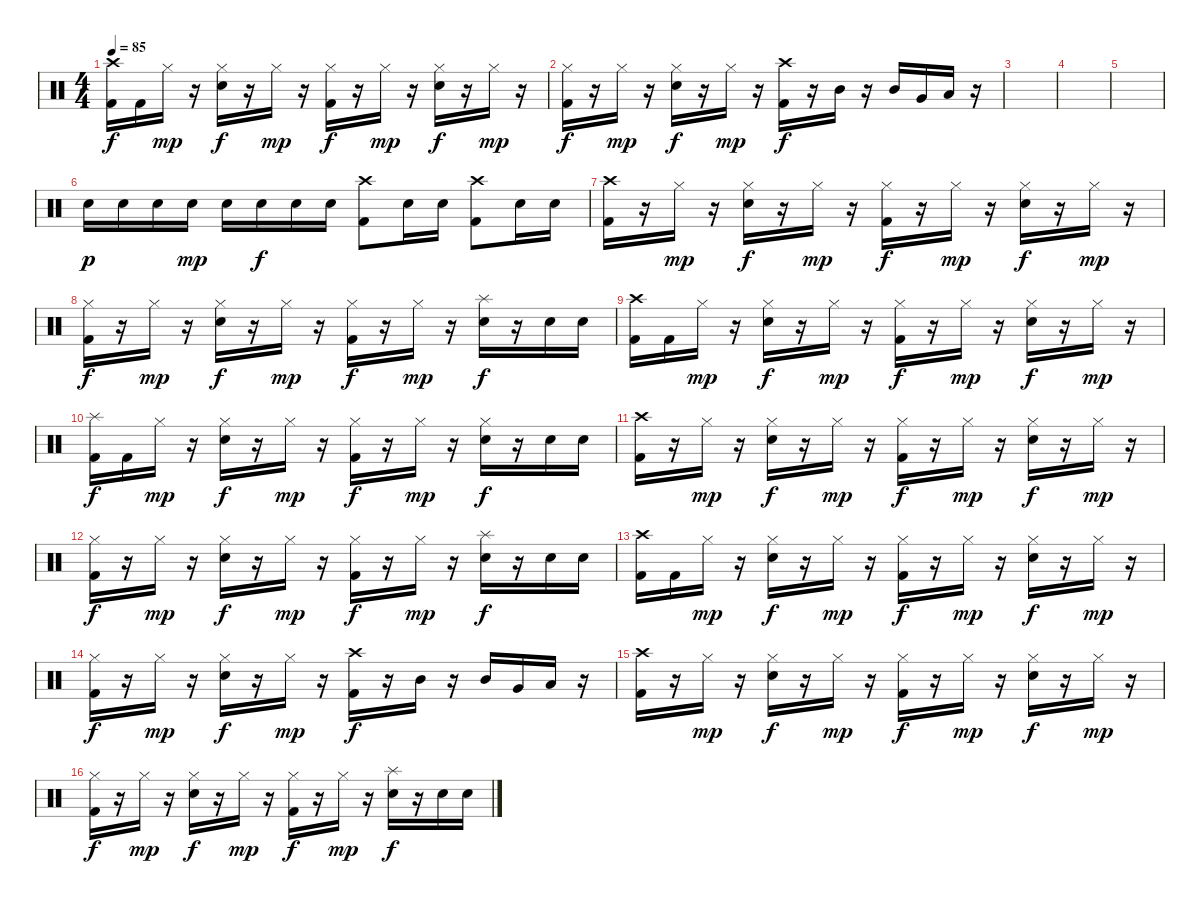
\track ("              Stefff" "          ") {instrument percussion}
\staff {score}
\articulation defaults
\ts (4 4)
\tempo 85
\clef neutral
\ks c
("Kick (hit) 2" "Crash high (hit)").16{dy f} "Kick (hit) 2".16 "Hi-Hat (closed)".16{dy mp} r.16 ("Hi-Hat (closed)" "Snare (hit) 2").16{dy f} r.16 "Hi-Hat (closed)".16{dy mp} r.16 ("Hi-Hat (closed)" "Kick (hit) 2").16{dy f} r.16 "Hi-Hat (closed)".16{dy mp} r.16 ("Hi-Hat (closed)" "Snare (hit) 2").16{dy f} r.16 "Hi-Hat (closed)".16{dy mp} r.16 |
("Kick (hit) 2" "Hi-Hat (closed)").16{dy f} r.16 "Hi-Hat (closed)".16{dy mp} r.16 ("Hi-Hat (closed)" "Snare (hit) 2").16{dy f} r.16 "Hi-Hat (closed)".16{dy mp} r.16 ("Crash high (hit)" "Kick (hit) 2").16{dy f} r.16 "Mid Tom (hit)".16 r.16 "Mid Tom (hit)".16 "Very Low Tom (hit)".16 "Low Floor Tom (hit)".16 r.16 |
|
|
|
"Snare (hit) 2".16{dy p} "Snare (hit) 2".16 "Snare (hit) 2".16 "Snare (hit) 2".16{dy mp} "Snare (hit) 2".16 "Snare (hit) 2".16{dy f} "Snare (hit) 2".16 "Snare (hit) 2".16 ("Kick (hit) 2" "Crash high (hit)").8 "Snare (hit) 2".16 "Snare (hit) 2".16 ("Kick (hit) 2" "Crash high (hit)").8 "Snare (hit) 2".16 "Snare (hit) 2".16 |
("Kick (hit) 2" "Crash high (hit)").16 r.16 "Hi-Hat (closed)".16{dy mp} r.16 ("Hi-Hat (closed)" "Snare (hit) 2").16{dy f} r.16 "Hi-Hat (closed)".16{dy mp} r.16 ("Hi-Hat (closed)" "Kick (hit) 2").16{dy f} r.16 "Hi-Hat (closed)".16{dy mp} r.16 ("Hi-Hat (closed)" "Snare (hit) 2").16{dy f} r.16 "Hi-Hat (closed)".16{dy mp} r.16 |
("Kick (hit) 2" "Hi-Hat (closed)").16{dy f} r.16 "Hi-Hat (closed)".16{dy mp} r.16 ("Hi-Hat (closed)" "Snare (hit) 2").16{dy f} r.16 "Hi-Hat (closed)".16{dy mp} r.16 ("Hi-Hat (closed)" "Kick (hit) 2").16{dy f} r.16 "Hi-Hat (closed)".16{dy mp} r.16 ("Splash (hit)" "Snare (hit) 2").16{dy f} r.16 "Snare (hit) 2".16 "Snare (hit) 2".16 |
("Kick (hit) 2" "Crash high (hit)").16 "Kick (hit) 2".16 "Hi-Hat (closed)".16{dy mp} r.16 ("Hi-Hat (closed)" "Snare (hit) 2").16{dy f} r.16 "Hi-Hat (closed)".16{dy mp} r.16 ("Hi-Hat (closed)" "Kick (hit) 2").16{dy f} r.16 "Hi-Hat (closed)".16{dy mp} r.16 ("Hi-Hat (closed)" "Snare (hit) 2").16{dy f} r.16 "Hi-Hat (closed)".16{dy mp} r.16 |
("Kick (hit) 2" "Splash (hit)").16{dy f} "Kick (hit) 2".16 "Hi-Hat (closed)".16{dy mp} r.16 ("Hi-Hat (closed)" "Snare (hit) 2").16{dy f} r.16 "Hi-Hat (closed)".16{dy mp} r.16 ("Hi-Hat (closed)" "Kick (hit) 2").16{dy f} r.16 "Hi-Hat (closed)".16{dy mp} r.16 ("Hi-Hat (closed)" "Snare (hit) 2").16{dy f} r.16 "Snare (hit) 2".16 "Snare (hit) 2".16 |
("Kick (hit) 2" "Crash high (hit)").16 r.16 "Hi-Hat (closed)".16{dy mp} r.16 ("Hi-Hat (closed)" "Snare (hit) 2").16{dy f} r.16 "Hi-Hat (closed)".16{dy mp} r.16 ("Hi-Hat (closed)" "Kick (hit) 2").16{dy f} r.16 "Hi-Hat (closed)".16{dy mp} r.16 ("Hi-Hat (closed)" "Snare (hit) 2").16{dy f} r.16 "Hi-Hat (closed)".16{dy mp} r.16 |
("Kick (hit) 2" "Hi-Hat (closed)").16{dy f} r.16 "Hi-Hat (closed)".16{dy mp} r.16 ("Hi-Hat (closed)" "Snare (hit) 2").16{dy f} r.16 "Hi-Hat (closed)".16{dy mp} r.16 ("Hi-Hat (closed)" "Kick (hit) 2").16{dy f} r.16 "Hi-Hat (closed)".16{dy mp} r.16 ("Splash (hit)" "Snare (hit) 2").16{dy f} r.16 "Snare (hit) 2".16 "Snare (hit) 2".16 |
("Kick (hit) 2" "Crash high (hit)").16 "Kick (hit) 2".16 "Hi-Hat (closed)".16{dy mp} r.16 ("Hi-Hat (closed)" "Snare (hit) 2").16{dy f} r.16 "Hi-Hat (closed)".16{dy mp} r.16 ("Hi-Hat (closed)" "Kick (hit) 2").16{dy f} r.16 "Hi-Hat (closed)".16{dy mp} r.16 ("Hi-Hat (closed)" "Snare (hit) 2").16{dy f} r.16 "Hi-Hat (closed)".16{dy mp} r.16 |
("Kick (hit) 2" "Hi-Hat (closed)").16{dy f} r.16 "Hi-Hat (closed)".16{dy mp} r.16 ("Hi-Hat (closed)" "Snare (hit) 2").16{dy f} r.16 "Hi-Hat (closed)".16{dy mp} r.16 ("Crash high (hit)" "Kick (hit) 2").16{dy f} r.16 "Mid Tom (hit)".16 r.16 "Mid Tom (hit)".16 "Very Low Tom (hit)".16 "Low Floor Tom (hit)".16 r.16 |
("Kick (hit) 2" "Crash high (hit)").16 r.16 "Hi-Hat (closed)".16{dy mp} r.16 ("Hi-Hat (closed)" "Snare (hit) 2").16{dy f} r.16 "Hi-Hat (closed)".16{dy mp} r.16 ("Hi-Hat (closed)" "Kick (hit) 2").16{dy f} r.16 "Hi-Hat (closed)".16{dy mp} r.16 ("Hi-Hat (closed)" "Snare (hit) 2").16{dy f} r.16 "Hi-Hat (closed)".16{dy mp} r.16 |
("Kick (hit) 2" "Hi-Hat (closed)").16{dy f} r.16 "Hi-Hat (closed)".16{dy mp} r.16 ("Hi-Hat (closed)" "Snare (hit) 2").16{dy f} r.16 "Hi-Hat (closed)".16{dy mp} r.16 ("Hi-Hat (closed)" "Kick (hit) 2").16{dy f} r.16 "Hi-Hat (closed)".16{dy mp} r.16 ("Splash (hit)" "Snare (hit) 2").16{dy f} r.16 "Snare (hit) 2".16 "Snare (hit) 2".16
